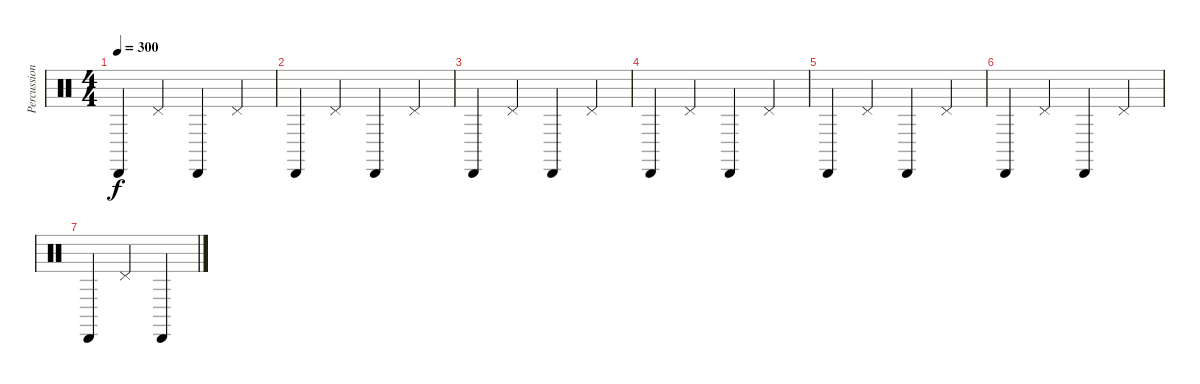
\track ("Percussions" "Percussion") {instrument percussion}
\staff {score}
\articulation defaults
\ts (4 4)
\tempo 300
\clef neutral
\ks c "Cabasa (hit)".4{dy f} "Pedal Hi-Hat (hit)".4 "Cabasa (hit)".4 "Pedal Hi-Hat (hit)".4
|
"Cabasa (hit)".4 "Pedal Hi-Hat (hit)".4 "Cabasa (hit)".4 "Pedal Hi-Hat (hit)".4 |
"Cabasa (hit)".4 "Pedal Hi-Hat (hit)".4 "Cabasa (hit)".4 "Pedal Hi-Hat (hit)".4 |
"Cabasa (hit)".4 "Pedal Hi-Hat (hit)".4 "Cabasa (hit)".4 "Pedal Hi-Hat (hit)".4 |
"Cabasa (hit)".4 "Pedal Hi-Hat (hit)".4 "Cabasa (hit)".4 "Pedal Hi-Hat (hit)".4 |
"Cabasa (hit)".4 "Pedal Hi-Hat (hit)".4 "Cabasa (hit)".4 "Pedal Hi-Hat (hit)".4 |
"Cabasa (hit)".4 "Pedal Hi-Hat (hit)".4 "Cabasa (hit)".4
